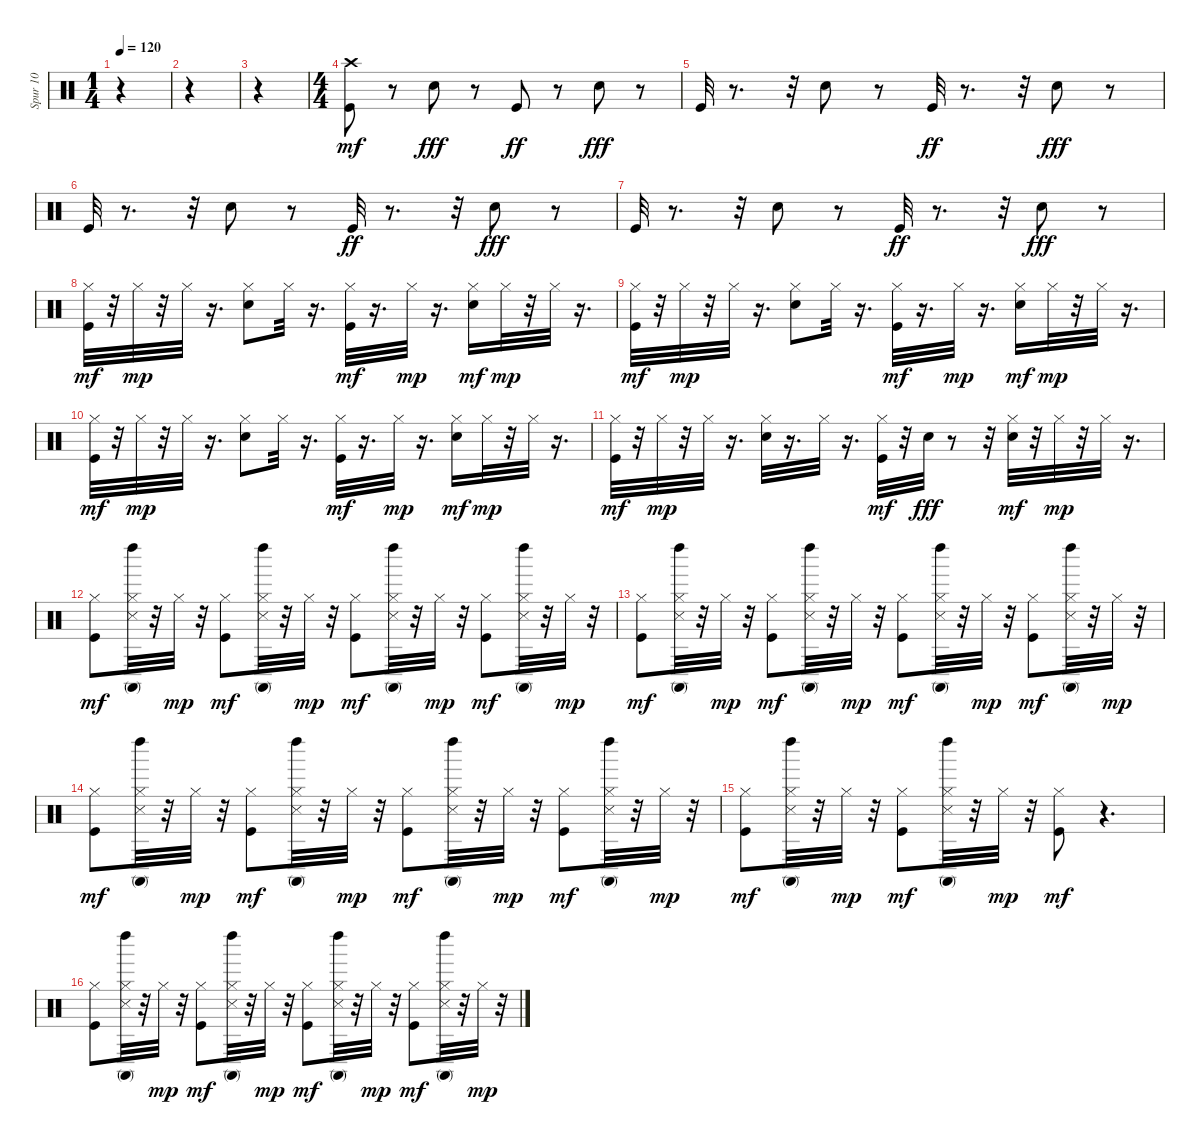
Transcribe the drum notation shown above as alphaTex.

\track ("Spur 10" "Spur 10") {instrument percussion}
\staff {score}
\articulation defaults
\ts (1 4)
\tempo 120
\clef neutral
\ks c
r.4{dy mf} |
r.4 |
r.4 |
\ts (4 4)
("Kick (hit)" "Crash high (hit)").8 r.8 "Snare (hit) 2".8{dy fff} r.8 "Kick (hit)".8{dy ff} r.8 "Snare (hit) 2".8{dy fff} r.8 |
"Kick (hit)".32 r.8{d} r.32 "Snare (hit) 2".8 r.8 "Kick (hit)".32{dy ff} r.8{d} r.32 "Snare (hit) 2".8{dy fff} r.8 |
"Kick (hit)".32 r.8{d} r.32 "Snare (hit) 2".8 r.8 "Kick (hit)".32{dy ff} r.8{d} r.32 "Snare (hit) 2".8{dy fff} r.8 |
"Kick (hit)".32 r.8{d} r.32 "Snare (hit) 2".8 r.8 "Kick (hit)".32{dy ff} r.8{d} r.32 "Snare (hit) 2".8{dy fff} r.8 |
("Kick (hit)" "Hi-Hat (closed)").32{dy mf} r.32 "Hi-Hat (closed)".32{dy mp} r.32 "Hi-Hat (closed)".32 r.16{d} ("Snare (hit) 2" "Hi-Hat (closed)").8 "Hi-Hat (closed)".32 r.16{d} ("Kick (hit)" "Hi-Hat (closed)").32{dy mf} r.16{d} "Hi-Hat (closed)".32{dy mp} r.16{d} ("Snare (hit) 2" "Hi-Hat (closed)").16{dy mf} "Hi-Hat (closed)".32{dy mp} r.32 "Hi-Hat (closed)".32 r.16{d} |
("Kick (hit)" "Hi-Hat (closed)").32{dy mf} r.32 "Hi-Hat (closed)".32{dy mp} r.32 "Hi-Hat (closed)".32 r.16{d} ("Snare (hit) 2" "Hi-Hat (closed)").8 "Hi-Hat (closed)".32 r.16{d} ("Kick (hit)" "Hi-Hat (closed)").32{dy mf} r.16{d} "Hi-Hat (closed)".32{dy mp} r.16{d} ("Snare (hit) 2" "Hi-Hat (closed)").16{dy mf} "Hi-Hat (closed)".32{dy mp} r.32 "Hi-Hat (closed)".32 r.16{d} |
("Kick (hit)" "Hi-Hat (closed)").32{dy mf} r.32 "Hi-Hat (closed)".32{dy mp} r.32 "Hi-Hat (closed)".32 r.16{d} ("Snare (hit) 2" "Hi-Hat (closed)").8 "Hi-Hat (closed)".32 r.16{d} ("Kick (hit)" "Hi-Hat (closed)").32{dy mf} r.16{d} "Hi-Hat (closed)".32{dy mp} r.16{d} ("Snare (hit) 2" "Hi-Hat (closed)").16{dy mf} "Hi-Hat (closed)".32{dy mp} r.32 "Hi-Hat (closed)".32 r.16{d} |
("Kick (hit)" "Hi-Hat (closed)").32{dy mf} r.32 "Hi-Hat (closed)".32{dy mp} r.32 "Hi-Hat (closed)".32 r.16{d} ("Snare (hit) 2" "Hi-Hat (closed)").32 r.16{d} "Hi-Hat (closed)".32 r.16{d} ("Kick (hit)" "Hi-Hat (closed)").32{dy mf} r.32 "Snare (hit) 2".32{dy fff} r.8 r.32 ("Snare (hit) 2" "Hi-Hat (closed)").32{dy mf} r.32 "Hi-Hat (closed)".32{dy mp} r.32 "Hi-Hat (closed)".32 r.16{d} |
("Kick (hit)" "Hi-Hat (closed)").8{dy mf} ("Hi-Hat (closed)" "Snare (side stick) 3" "Conga high (mute)" "Left Maraca (hit)").32 r.32 "Hi-Hat (closed)".32{dy mp} r.32 ("Kick (hit)" "Hi-Hat (closed)").8{dy mf} ("Hi-Hat (closed)" "Snare (side stick) 3" "Conga high (mute)" "Left Maraca (hit)").32 r.32 "Hi-Hat (closed)".32{dy mp} r.32 ("Kick (hit)" "Hi-Hat (closed)").8{dy mf} ("Hi-Hat (closed)" "Snare (side stick) 3" "Conga high (mute)" "Left Maraca (hit)").32 r.32 "Hi-Hat (closed)".32{dy mp} r.32 ("Kick (hit)" "Hi-Hat (closed)").8{dy mf} ("Hi-Hat (closed)" "Snare (side stick) 3" "Conga high (mute)" "Left Maraca (hit)").32 r.32 "Hi-Hat (closed)".32{dy mp} r.32 |
("Kick (hit)" "Hi-Hat (closed)").8{dy mf} ("Hi-Hat (closed)" "Snare (side stick) 3" "Conga high (mute)" "Left Maraca (hit)").32 r.32 "Hi-Hat (closed)".32{dy mp} r.32 ("Kick (hit)" "Hi-Hat (closed)").8{dy mf} ("Hi-Hat (closed)" "Snare (side stick) 3" "Conga high (mute)" "Left Maraca (hit)").32 r.32 "Hi-Hat (closed)".32{dy mp} r.32 ("Kick (hit)" "Hi-Hat (closed)").8{dy mf} ("Hi-Hat (closed)" "Snare (side stick) 3" "Conga high (mute)" "Left Maraca (hit)").32 r.32 "Hi-Hat (closed)".32{dy mp} r.32 ("Kick (hit)" "Hi-Hat (closed)").8{dy mf} ("Hi-Hat (closed)" "Snare (side stick) 3" "Conga high (mute)" "Left Maraca (hit)").32 r.32 "Hi-Hat (closed)".32{dy mp} r.32 |
("Kick (hit)" "Hi-Hat (closed)").8{dy mf} ("Hi-Hat (closed)" "Snare (side stick) 3" "Conga high (mute)" "Left Maraca (hit)").32 r.32 "Hi-Hat (closed)".32{dy mp} r.32 ("Kick (hit)" "Hi-Hat (closed)").8{dy mf} ("Hi-Hat (closed)" "Snare (side stick) 3" "Conga high (mute)" "Left Maraca (hit)").32 r.32 "Hi-Hat (closed)".32{dy mp} r.32 ("Kick (hit)" "Hi-Hat (closed)").8{dy mf} ("Hi-Hat (closed)" "Snare (side stick) 3" "Conga high (mute)" "Left Maraca (hit)").32 r.32 "Hi-Hat (closed)".32{dy mp} r.32 ("Kick (hit)" "Hi-Hat (closed)").8{dy mf} ("Hi-Hat (closed)" "Snare (side stick) 3" "Conga high (mute)" "Left Maraca (hit)").32 r.32 "Hi-Hat (closed)".32{dy mp} r.32 |
("Kick (hit)" "Hi-Hat (closed)").8{dy mf} ("Hi-Hat (closed)" "Snare (side stick) 3" "Conga high (mute)" "Left Maraca (hit)").32 r.32 "Hi-Hat (closed)".32{dy mp} r.32 ("Kick (hit)" "Hi-Hat (closed)").8{dy mf} ("Hi-Hat (closed)" "Snare (side stick) 3" "Conga high (mute)" "Left Maraca (hit)").32 r.32 "Hi-Hat (closed)".32{dy mp} r.32 ("Kick (hit)" "Hi-Hat (closed)").8{dy mf} r.4{d} |
("Kick (hit)" "Hi-Hat (closed)").8 ("Hi-Hat (closed)" "Snare (side stick) 3" "Conga high (mute)" "Left Maraca (hit)").32 r.32 "Hi-Hat (closed)".32{dy mp} r.32 ("Kick (hit)" "Hi-Hat (closed)").8{dy mf} ("Hi-Hat (closed)" "Snare (side stick) 3" "Conga high (mute)" "Left Maraca (hit)").32 r.32 "Hi-Hat (closed)".32{dy mp} r.32 ("Kick (hit)" "Hi-Hat (closed)").8{dy mf} ("Hi-Hat (closed)" "Snare (side stick) 3" "Conga high (mute)" "Left Maraca (hit)").32 r.32 "Hi-Hat (closed)".32{dy mp} r.32 ("Kick (hit)" "Hi-Hat (closed)").8{dy mf} ("Hi-Hat (closed)" "Snare (side stick) 3" "Conga high (mute)" "Left Maraca (hit)").32 r.32 "Hi-Hat (closed)".32{dy mp} r.32
